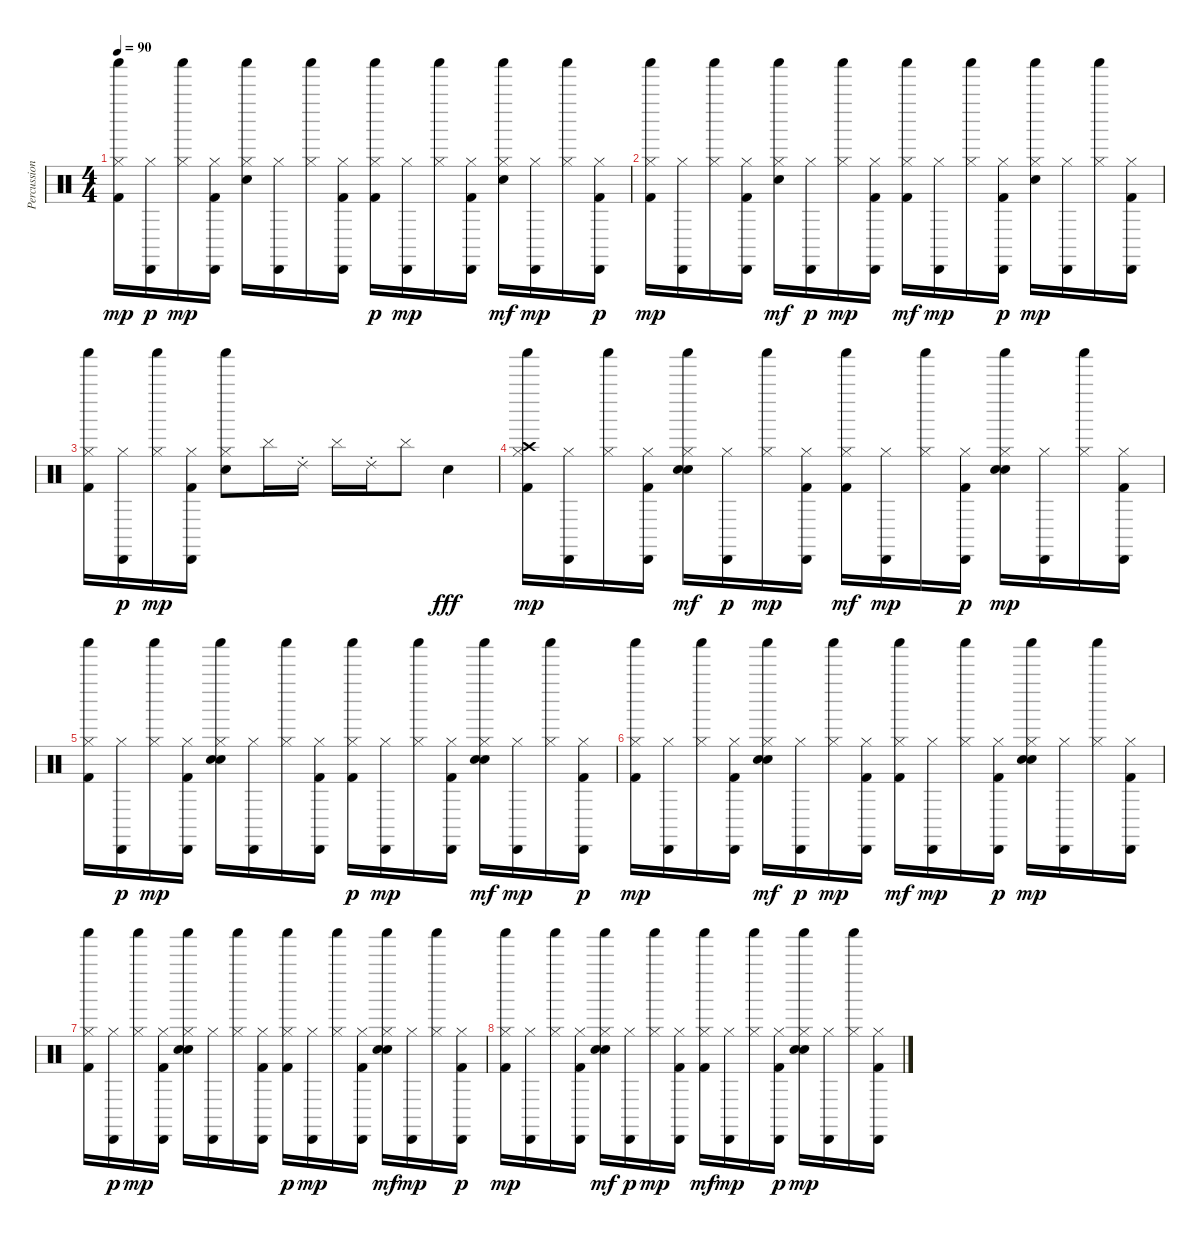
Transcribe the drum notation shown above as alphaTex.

\track ("Percussions" "Percussion") {instrument percussion}
\staff {score}
\articulation defaults
\ts (4 4)
\tempo 90
\clef neutral
\ks c
("Kick (hit) 2" "Hi-Hat (closed)" "Shaker (hit)").16{dy mp} ("Hi-Hat (closed)" "Cabasa (hit)").16{dy p} ("Hi-Hat (closed)" "Shaker (hit)").16{dy mp} ("Kick (hit) 2" "Hi-Hat (closed)" "Cabasa (hit)").16 ("Electric Snare (hit)" "Hi-Hat (closed)" "Shaker (hit)").16 ("Hi-Hat (closed)" "Cabasa (hit)").16 ("Hi-Hat (closed)" "Shaker (hit)").16 ("Kick (hit) 2" "Hi-Hat (closed)" "Cabasa (hit)").16 ("Kick (hit) 2" "Hi-Hat (closed)" "Shaker (hit)").16{dy p} ("Hi-Hat (closed)" "Cabasa (hit)").16{dy mp} ("Hi-Hat (closed)" "Shaker (hit)").16 ("Kick (hit) 2" "Hi-Hat (closed)" "Cabasa (hit)").16 ("Electric Snare (hit)" "Hi-Hat (closed)" "Shaker (hit)").16{dy mf} ("Hi-Hat (closed)" "Cabasa (hit)").16{dy mp} ("Hi-Hat (closed)" "Shaker (hit)").16 ("Kick (hit) 2" "Hi-Hat (closed)" "Cabasa (hit)").16{dy p} |
("Kick (hit) 2" "Hi-Hat (closed)" "Shaker (hit)").16{dy mp} ("Hi-Hat (closed)" "Cabasa (hit)").16 ("Hi-Hat (closed)" "Shaker (hit)").16 ("Kick (hit) 2" "Hi-Hat (closed)" "Cabasa (hit)").16 ("Electric Snare (hit)" "Hi-Hat (closed)" "Shaker (hit)").16{dy mf} ("Hi-Hat (closed)" "Cabasa (hit)").16{dy p} ("Hi-Hat (closed)" "Shaker (hit)").16{dy mp} ("Kick (hit) 2" "Hi-Hat (closed)" "Cabasa (hit)").16 ("Kick (hit) 2" "Hi-Hat (closed)" "Shaker (hit)").16{dy mf} ("Hi-Hat (closed)" "Cabasa (hit)").16{dy mp} ("Hi-Hat (closed)" "Shaker (hit)").16 ("Kick (hit) 2" "Hi-Hat (closed)" "Cabasa (hit)").16{dy p} ("Electric Snare (hit)" "Hi-Hat (closed)" "Shaker (hit)").16{dy mp} ("Hi-Hat (closed)" "Cabasa (hit)").16 ("Hi-Hat (closed)" "Shaker (hit)").16 ("Kick (hit) 2" "Hi-Hat (closed)" "Cabasa (hit)").16 |
("Kick (hit) 2" "Hi-Hat (closed)" "Shaker (hit)").16 ("Hi-Hat (closed)" "Cabasa (hit)").16{dy p} ("Hi-Hat (closed)" "Shaker (hit)").16{dy mp} ("Kick (hit) 2" "Hi-Hat (closed)" "Cabasa (hit)").16 ("Electric Snare (hit)" "Hi-Hat (closed)" "Shaker (hit)").8 "Cymbal (hit)".16 "Ride (choke) 2".16 "Cymbal (hit)".16 "Ride (choke) 2".16 "Cymbal (hit)".8 "Electric Snare (hit)".4{dy fff} |
("Kick (hit) 2" "Hi-Hat (closed)" "Crash high (hit)" "Shaker (hit)").16{dy mp} ("Hi-Hat (closed)" "Cabasa (hit)").16 ("Hi-Hat (closed)" "Shaker (hit)").16 ("Kick (hit) 2" "Hi-Hat (closed)" "Cabasa (hit)").16 ("Hand Clap (hit)" "Electric Snare (hit)" "Hi-Hat (closed)" "Shaker (hit)").16{dy mf} ("Hi-Hat (closed)" "Cabasa (hit)").16{dy p} ("Hi-Hat (closed)" "Shaker (hit)").16{dy mp} ("Kick (hit) 2" "Hi-Hat (closed)" "Cabasa (hit)").16 ("Kick (hit) 2" "Hi-Hat (closed)" "Shaker (hit)").16{dy mf} ("Hi-Hat (closed)" "Cabasa (hit)").16{dy mp} ("Hi-Hat (closed)" "Shaker (hit)").16 ("Kick (hit) 2" "Hi-Hat (closed)" "Cabasa (hit)").16{dy p} ("Hand Clap (hit)" "Electric Snare (hit)" "Hi-Hat (closed)" "Shaker (hit)").16{dy mp} ("Hi-Hat (closed)" "Cabasa (hit)").16 ("Hi-Hat (closed)" "Shaker (hit)").16 ("Kick (hit) 2" "Hi-Hat (closed)" "Cabasa (hit)").16 |
("Kick (hit) 2" "Hi-Hat (closed)" "Shaker (hit)").16 ("Hi-Hat (closed)" "Cabasa (hit)").16{dy p} ("Hi-Hat (closed)" "Shaker (hit)").16{dy mp} ("Kick (hit) 2" "Hi-Hat (closed)" "Cabasa (hit)").16 ("Hand Clap (hit)" "Electric Snare (hit)" "Hi-Hat (closed)" "Shaker (hit)").16 ("Hi-Hat (closed)" "Cabasa (hit)").16 ("Hi-Hat (closed)" "Shaker (hit)").16 ("Kick (hit) 2" "Hi-Hat (closed)" "Cabasa (hit)").16 ("Kick (hit) 2" "Hi-Hat (closed)" "Shaker (hit)").16{dy p} ("Hi-Hat (closed)" "Cabasa (hit)").16{dy mp} ("Hi-Hat (closed)" "Shaker (hit)").16 ("Kick (hit) 2" "Hi-Hat (closed)" "Cabasa (hit)").16 ("Hand Clap (hit)" "Electric Snare (hit)" "Hi-Hat (closed)" "Shaker (hit)").16{dy mf} ("Hi-Hat (closed)" "Cabasa (hit)").16{dy mp} ("Hi-Hat (closed)" "Shaker (hit)").16 ("Kick (hit) 2" "Hi-Hat (closed)" "Cabasa (hit)").16{dy p} |
("Kick (hit) 2" "Hi-Hat (closed)" "Shaker (hit)").16{dy mp} ("Hi-Hat (closed)" "Cabasa (hit)").16 ("Hi-Hat (closed)" "Shaker (hit)").16 ("Kick (hit) 2" "Hi-Hat (closed)" "Cabasa (hit)").16 ("Hand Clap (hit)" "Electric Snare (hit)" "Hi-Hat (closed)" "Shaker (hit)").16{dy mf} ("Hi-Hat (closed)" "Cabasa (hit)").16{dy p} ("Hi-Hat (closed)" "Shaker (hit)").16{dy mp} ("Kick (hit) 2" "Hi-Hat (closed)" "Cabasa (hit)").16 ("Kick (hit) 2" "Hi-Hat (closed)" "Shaker (hit)").16{dy mf} ("Hi-Hat (closed)" "Cabasa (hit)").16{dy mp} ("Hi-Hat (closed)" "Shaker (hit)").16 ("Kick (hit) 2" "Hi-Hat (closed)" "Cabasa (hit)").16{dy p} ("Hand Clap (hit)" "Electric Snare (hit)" "Hi-Hat (closed)" "Shaker (hit)").16{dy mp} ("Hi-Hat (closed)" "Cabasa (hit)").16 ("Hi-Hat (closed)" "Shaker (hit)").16 ("Kick (hit) 2" "Hi-Hat (closed)" "Cabasa (hit)").16 |
("Kick (hit) 2" "Hi-Hat (closed)" "Shaker (hit)").16 ("Hi-Hat (closed)" "Cabasa (hit)").16{dy p} ("Hi-Hat (closed)" "Shaker (hit)").16{dy mp} ("Kick (hit) 2" "Hi-Hat (closed)" "Cabasa (hit)").16 ("Hand Clap (hit)" "Electric Snare (hit)" "Hi-Hat (closed)" "Shaker (hit)").16 ("Hi-Hat (closed)" "Cabasa (hit)").16 ("Hi-Hat (closed)" "Shaker (hit)").16 ("Kick (hit) 2" "Hi-Hat (closed)" "Cabasa (hit)").16 ("Kick (hit) 2" "Hi-Hat (closed)" "Shaker (hit)").16{dy p} ("Hi-Hat (closed)" "Cabasa (hit)").16{dy mp} ("Hi-Hat (closed)" "Shaker (hit)").16 ("Kick (hit) 2" "Hi-Hat (closed)" "Cabasa (hit)").16 ("Hand Clap (hit)" "Electric Snare (hit)" "Hi-Hat (closed)" "Shaker (hit)").16{dy mf} ("Hi-Hat (closed)" "Cabasa (hit)").16{dy mp} ("Hi-Hat (closed)" "Shaker (hit)").16 ("Kick (hit) 2" "Hi-Hat (closed)" "Cabasa (hit)").16{dy p} |
("Kick (hit) 2" "Hi-Hat (closed)" "Shaker (hit)").16{dy mp} ("Hi-Hat (closed)" "Cabasa (hit)").16 ("Hi-Hat (closed)" "Shaker (hit)").16 ("Kick (hit) 2" "Hi-Hat (closed)" "Cabasa (hit)").16 ("Hand Clap (hit)" "Electric Snare (hit)" "Hi-Hat (closed)" "Shaker (hit)").16{dy mf} ("Hi-Hat (closed)" "Cabasa (hit)").16{dy p} ("Hi-Hat (closed)" "Shaker (hit)").16{dy mp} ("Kick (hit) 2" "Hi-Hat (closed)" "Cabasa (hit)").16 ("Kick (hit) 2" "Hi-Hat (closed)" "Shaker (hit)").16{dy mf} ("Hi-Hat (closed)" "Cabasa (hit)").16{dy mp} ("Hi-Hat (closed)" "Shaker (hit)").16 ("Kick (hit) 2" "Hi-Hat (closed)" "Cabasa (hit)").16{dy p} ("Hand Clap (hit)" "Electric Snare (hit)" "Hi-Hat (closed)" "Shaker (hit)").16{dy mp} ("Hi-Hat (closed)" "Cabasa (hit)").16 ("Hi-Hat (closed)" "Shaker (hit)").16 ("Kick (hit) 2" "Hi-Hat (closed)" "Cabasa (hit)").16
